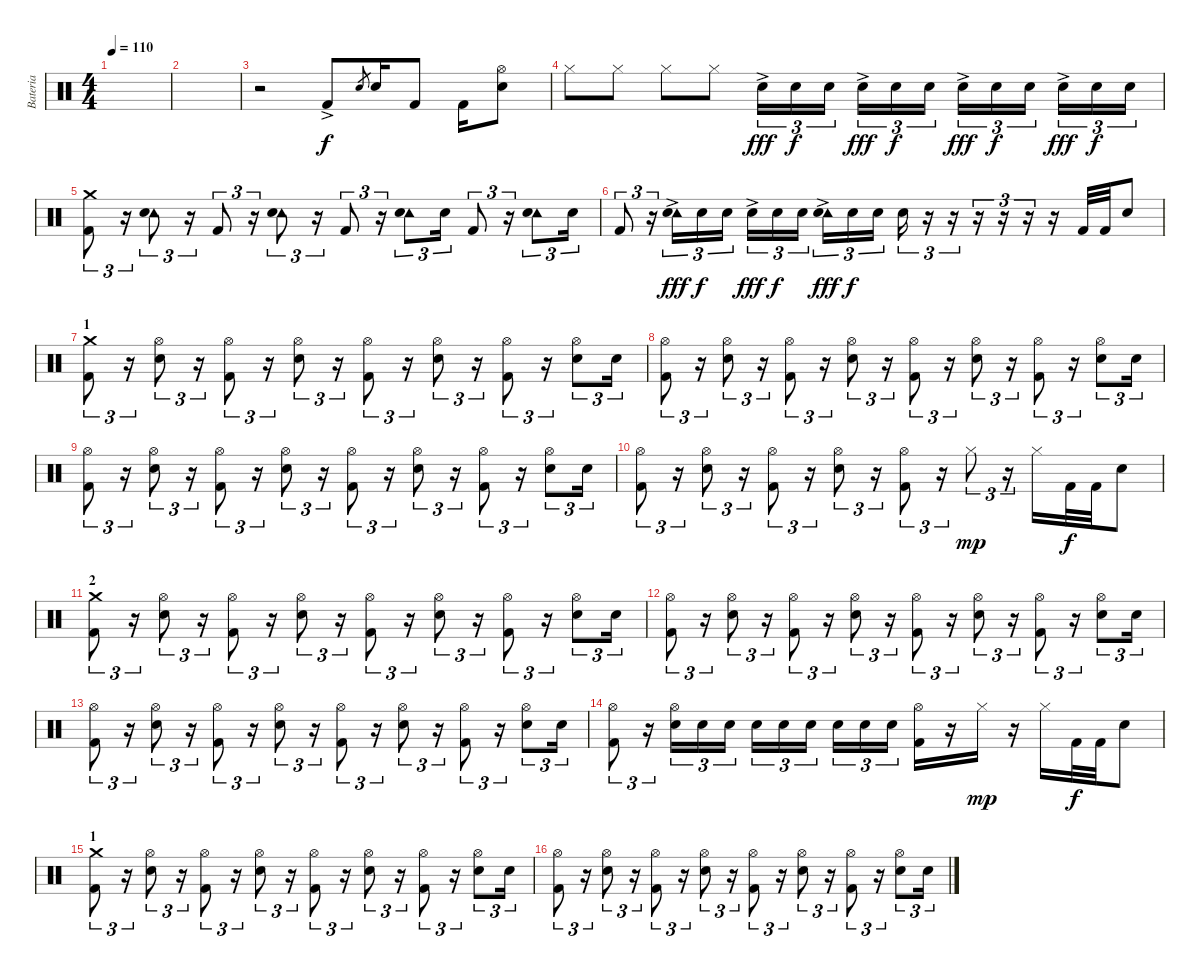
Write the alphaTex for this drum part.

\track ("Bateria" "Bateria") {instrument percussion}
\staff {score}
\articulation defaults
\ts (4 4)
\tempo 110
\clef neutral
\ks c
|
|
r.2 "Kick (hit) 2"{ac}.8 "Electric Snare (hit)".8{gr dy f} "Electric Snare (hit)".16 "Kick (hit) 2".8 "Kick (hit) 2".16 ("Hi-Hat (open)" "Electric Snare (hit)").8 |
"Hi-Hat (closed)".8 "Hi-Hat (closed)".8 "Hi-Hat (closed)".8 "Hi-Hat (closed)".8 "Electric Snare (hit)"{ac}.16{tu (3 2) dy fff} "Electric Snare (hit)".16{tu (3 2) dy f} "Electric Snare (hit)".16{tu (3 2)} "Electric Snare (hit)"{ac}.16{tu (3 2) dy fff} "Electric Snare (hit)".16{tu (3 2) dy f} "Electric Snare (hit)".16{tu (3 2)} "Electric Snare (hit)"{ac}.16{tu (3 2) dy fff} "Electric Snare (hit)".16{tu (3 2) dy f} "Electric Snare (hit)".16{tu (3 2)} "Electric Snare (hit)"{ac}.16{tu (3 2) dy fff} "Electric Snare (hit)".16{tu (3 2) dy f} "Electric Snare (hit)".16{tu (3 2)} |
("Crash medium (hit)" "Kick (hit) 2").8{tu (3 2)} r.16{tu (3 2)} ("Tambourine (hit)" "Electric Snare (hit)").8{tu (3 2)} r.16{tu (3 2)} "Kick (hit) 2".8{tu (3 2)} r.16{tu (3 2)} ("Tambourine (hit)" "Electric Snare (hit)").8{tu (3 2)} r.16{tu (3 2)} "Kick (hit) 2".8{tu (3 2)} r.16{tu (3 2)} ("Tambourine (hit)" "Electric Snare (hit)").8{tu (3 2)} "Electric Snare (hit)".16{tu (3 2)} "Kick (hit) 2".8{tu (3 2)} r.16{tu (3 2)} ("Tambourine (hit)" "Electric Snare (hit)").8{tu (3 2)} "Electric Snare (hit)".16{tu (3 2)} |
"Kick (hit) 2".8{tu (3 2)} r.16{tu (3 2)} ("Tambourine (hit)" "Electric Snare (hit)"{ac}).16{tu (3 2) dy fff} "Electric Snare (hit)".16{tu (3 2) dy f} "Electric Snare (hit)".16{tu (3 2)} "Electric Snare (hit)"{ac}.16{tu (3 2) dy fff} "Electric Snare (hit)".16{tu (3 2) dy f} "Electric Snare (hit)".16{tu (3 2)} ("Tambourine (hit)" "Electric Snare (hit)"{ac}).16{tu (3 2) dy fff} "Electric Snare (hit)".16{tu (3 2) dy f} "Electric Snare (hit)".16{tu (3 2)} "Electric Snare (hit)".16{tu (3 2)} r.16{tu (3 2)} r.16{tu (3 2)} r.16{tu (3 2)} r.16{tu (3 2)} r.16{tu (3 2)} r.16 "Kick (hit) 2".32 "Kick (hit) 2".32 "Electric Snare (hit)".8 |
\section ("" "1")
("Crash medium (hit)" "Kick (hit) 2").8{tu (3 2)} r.16{tu (3 2)} ("Hi-Hat (open)" "Electric Snare (hit)").8{tu (3 2)} r.16{tu (3 2)} ("Hi-Hat (open)" "Kick (hit) 2").8{tu (3 2)} r.16{tu (3 2)} ("Hi-Hat (open)" "Electric Snare (hit)").8{tu (3 2)} r.16{tu (3 2)} ("Hi-Hat (open)" "Kick (hit) 2").8{tu (3 2)} r.16{tu (3 2)} ("Hi-Hat (open)" "Electric Snare (hit)").8{tu (3 2)} r.16{tu (3 2)} ("Hi-Hat (open)" "Kick (hit) 2").8{tu (3 2)} r.16{tu (3 2)} ("Hi-Hat (open)" "Electric Snare (hit)").8{tu (3 2)} "Electric Snare (hit)".16{tu (3 2)} |
("Hi-Hat (open)" "Kick (hit) 2").8{tu (3 2)} r.16{tu (3 2)} ("Hi-Hat (open)" "Electric Snare (hit)").8{tu (3 2)} r.16{tu (3 2)} ("Hi-Hat (open)" "Kick (hit) 2").8{tu (3 2)} r.16{tu (3 2)} ("Hi-Hat (open)" "Electric Snare (hit)").8{tu (3 2)} r.16{tu (3 2)} ("Hi-Hat (open)" "Kick (hit) 2").8{tu (3 2)} r.16{tu (3 2)} ("Hi-Hat (open)" "Electric Snare (hit)").8{tu (3 2)} r.16{tu (3 2)} ("Hi-Hat (open)" "Kick (hit) 2").8{tu (3 2)} r.16{tu (3 2)} ("Hi-Hat (open)" "Electric Snare (hit)").8{tu (3 2)} "Electric Snare (hit)".16{tu (3 2)} |
("Hi-Hat (open)" "Kick (hit) 2").8{tu (3 2)} r.16{tu (3 2)} ("Hi-Hat (open)" "Electric Snare (hit)").8{tu (3 2)} r.16{tu (3 2)} ("Hi-Hat (open)" "Kick (hit) 2").8{tu (3 2)} r.16{tu (3 2)} ("Hi-Hat (open)" "Electric Snare (hit)").8{tu (3 2)} r.16{tu (3 2)} ("Hi-Hat (open)" "Kick (hit) 2").8{tu (3 2)} r.16{tu (3 2)} ("Hi-Hat (open)" "Electric Snare (hit)").8{tu (3 2)} r.16{tu (3 2)} ("Hi-Hat (open)" "Kick (hit) 2").8{tu (3 2)} r.16{tu (3 2)} ("Hi-Hat (open)" "Electric Snare (hit)").8{tu (3 2)} "Electric Snare (hit)".16{tu (3 2)} |
("Hi-Hat (open)" "Kick (hit) 2").8{tu (3 2)} r.16{tu (3 2)} ("Hi-Hat (open)" "Electric Snare (hit)").8{tu (3 2)} r.16{tu (3 2)} ("Hi-Hat (open)" "Kick (hit) 2").8{tu (3 2)} r.16{tu (3 2)} ("Hi-Hat (open)" "Electric Snare (hit)").8{tu (3 2)} r.16{tu (3 2)} ("Hi-Hat (open)" "Kick (hit) 2").8{tu (3 2)} r.16{tu (3 2)} "Hi-Hat (closed)".8{tu (3 2) dy mp} r.16{tu (3 2)} "Hi-Hat (closed)".16 "Kick (hit) 2".32{dy f} "Kick (hit) 2".32 "Electric Snare (hit)".8 |
\section ("" "2")
("Crash medium (hit)" "Kick (hit) 2").8{tu (3 2)} r.16{tu (3 2)} ("Hi-Hat (open)" "Electric Snare (hit)").8{tu (3 2)} r.16{tu (3 2)} ("Hi-Hat (open)" "Kick (hit) 2").8{tu (3 2)} r.16{tu (3 2)} ("Hi-Hat (open)" "Electric Snare (hit)").8{tu (3 2)} r.16{tu (3 2)} ("Hi-Hat (open)" "Kick (hit) 2").8{tu (3 2)} r.16{tu (3 2)} ("Hi-Hat (open)" "Electric Snare (hit)").8{tu (3 2)} r.16{tu (3 2)} ("Hi-Hat (open)" "Kick (hit) 2").8{tu (3 2)} r.16{tu (3 2)} ("Hi-Hat (open)" "Electric Snare (hit)").8{tu (3 2)} "Electric Snare (hit)".16{tu (3 2)} |
("Hi-Hat (open)" "Kick (hit) 2").8{tu (3 2)} r.16{tu (3 2)} ("Hi-Hat (open)" "Electric Snare (hit)").8{tu (3 2)} r.16{tu (3 2)} ("Hi-Hat (open)" "Kick (hit) 2").8{tu (3 2)} r.16{tu (3 2)} ("Hi-Hat (open)" "Electric Snare (hit)").8{tu (3 2)} r.16{tu (3 2)} ("Hi-Hat (open)" "Kick (hit) 2").8{tu (3 2)} r.16{tu (3 2)} ("Hi-Hat (open)" "Electric Snare (hit)").8{tu (3 2)} r.16{tu (3 2)} ("Hi-Hat (open)" "Kick (hit) 2").8{tu (3 2)} r.16{tu (3 2)} ("Hi-Hat (open)" "Electric Snare (hit)").8{tu (3 2)} "Electric Snare (hit)".16{tu (3 2)} |
("Hi-Hat (open)" "Kick (hit) 2").8{tu (3 2)} r.16{tu (3 2)} ("Hi-Hat (open)" "Electric Snare (hit)").8{tu (3 2)} r.16{tu (3 2)} ("Hi-Hat (open)" "Kick (hit) 2").8{tu (3 2)} r.16{tu (3 2)} ("Hi-Hat (open)" "Electric Snare (hit)").8{tu (3 2)} r.16{tu (3 2)} ("Hi-Hat (open)" "Kick (hit) 2").8{tu (3 2)} r.16{tu (3 2)} ("Hi-Hat (open)" "Electric Snare (hit)").8{tu (3 2)} r.16{tu (3 2)} ("Hi-Hat (open)" "Kick (hit) 2").8{tu (3 2)} r.16{tu (3 2)} ("Hi-Hat (open)" "Electric Snare (hit)").8{tu (3 2)} "Electric Snare (hit)".16{tu (3 2)} |
("Hi-Hat (open)" "Kick (hit) 2").8{tu (3 2)} r.16{tu (3 2)} ("Hi-Hat (open)" "Electric Snare (hit)").16{tu (3 2)} "Electric Snare (hit)".16{tu (3 2)} "Electric Snare (hit)".16{tu (3 2)} "Electric Snare (hit)".16{tu (3 2)} "Electric Snare (hit)".16{tu (3 2)} "Electric Snare (hit)".16{tu (3 2)} "Electric Snare (hit)".16{tu (3 2)} "Electric Snare (hit)".16{tu (3 2)} "Electric Snare (hit)".16{tu (3 2)} ("Hi-Hat (open)" "Kick (hit) 2").16 r.16 "Hi-Hat (closed)".16{dy mp} r.16 "Hi-Hat (closed)".16 "Kick (hit) 2".32{dy f} "Kick (hit) 2".32 "Electric Snare (hit)".8 |
\section ("" "1")
("Crash medium (hit)" "Kick (hit) 2").8{tu (3 2)} r.16{tu (3 2)} ("Hi-Hat (open)" "Electric Snare (hit)").8{tu (3 2)} r.16{tu (3 2)} ("Hi-Hat (open)" "Kick (hit) 2").8{tu (3 2)} r.16{tu (3 2)} ("Hi-Hat (open)" "Electric Snare (hit)").8{tu (3 2)} r.16{tu (3 2)} ("Hi-Hat (open)" "Kick (hit) 2").8{tu (3 2)} r.16{tu (3 2)} ("Hi-Hat (open)" "Electric Snare (hit)").8{tu (3 2)} r.16{tu (3 2)} ("Hi-Hat (open)" "Kick (hit) 2").8{tu (3 2)} r.16{tu (3 2)} ("Hi-Hat (open)" "Electric Snare (hit)").8{tu (3 2)} "Electric Snare (hit)".16{tu (3 2)} |
("Hi-Hat (open)" "Kick (hit) 2").8{tu (3 2)} r.16{tu (3 2)} ("Hi-Hat (open)" "Electric Snare (hit)").8{tu (3 2)} r.16{tu (3 2)} ("Hi-Hat (open)" "Kick (hit) 2").8{tu (3 2)} r.16{tu (3 2)} ("Hi-Hat (open)" "Electric Snare (hit)").8{tu (3 2)} r.16{tu (3 2)} ("Hi-Hat (open)" "Kick (hit) 2").8{tu (3 2)} r.16{tu (3 2)} ("Hi-Hat (open)" "Electric Snare (hit)").8{tu (3 2)} r.16{tu (3 2)} ("Hi-Hat (open)" "Kick (hit) 2").8{tu (3 2)} r.16{tu (3 2)} ("Hi-Hat (open)" "Electric Snare (hit)").8{tu (3 2)} "Electric Snare (hit)".16{tu (3 2)}
